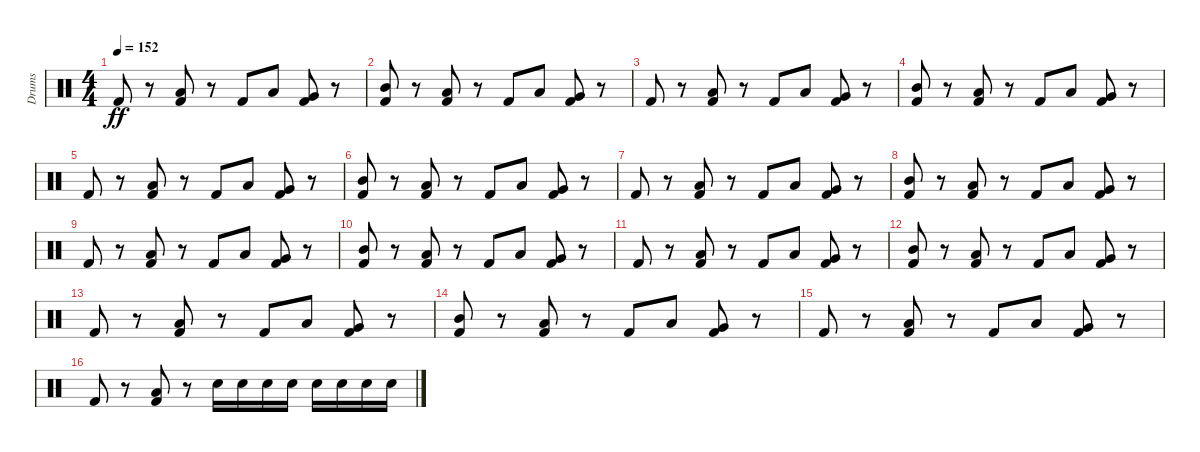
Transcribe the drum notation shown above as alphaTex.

\track ("Drums" "Drums") {instrument percussion}
\staff {score}
\articulation defaults
\ts (4 4)
\tempo 152
\clef neutral
\ks c "Kick (hit) 2".8{dy ff}
r.8 ("Kick (hit) 2" "Low Tom (hit)").8 r.8 "Kick (hit) 2".8 "Low Tom (hit)".8 ("Kick (hit) 2" "Very Low Tom (hit)").8 r.8 |
("Mid Tom (hit)" "Kick (hit) 2").8 r.8 ("Kick (hit) 2" "Low Tom (hit)").8 r.8 "Kick (hit) 2".8 "Low Tom (hit)".8 ("Kick (hit) 2" "Very Low Tom (hit)").8 r.8 |
"Kick (hit) 2".8 r.8 ("Low Tom (hit)" "Kick (hit) 2").8 r.8 "Kick (hit) 2".8 "Low Tom (hit)".8 ("Very Low Tom (hit)" "Kick (hit) 2").8 r.8 |
("Mid Tom (hit)" "Kick (hit) 2").8 r.8 ("Low Tom (hit)" "Kick (hit) 2").8 r.8 "Kick (hit) 2".8 "Low Tom (hit)".8 ("Very Low Tom (hit)" "Kick (hit) 2").8 r.8 |
"Kick (hit) 2".8 r.8 ("Low Tom (hit)" "Kick (hit) 2").8 r.8 "Kick (hit) 2".8 "Low Tom (hit)".8 ("Very Low Tom (hit)" "Kick (hit) 2").8 r.8 |
("Kick (hit) 2" "Mid Tom (hit)").8 r.8 ("Low Tom (hit)" "Kick (hit) 2").8 r.8 "Kick (hit) 2".8 "Low Tom (hit)".8 ("Very Low Tom (hit)" "Kick (hit) 2").8 r.8 |
"Kick (hit) 2".8 r.8 ("Kick (hit) 2" "Low Tom (hit)").8 r.8 "Kick (hit) 2".8 "Low Tom (hit)".8 ("Kick (hit) 2" "Very Low Tom (hit)").8 r.8 |
("Kick (hit) 2" "Mid Tom (hit)").8 r.8 ("Kick (hit) 2" "Low Tom (hit)").8 r.8 "Kick (hit) 2".8 "Low Tom (hit)".8 ("Kick (hit) 2" "Very Low Tom (hit)").8 r.8 |
"Kick (hit) 2".8 r.8 ("Kick (hit) 2" "Low Tom (hit)").8 r.8 "Kick (hit) 2".8 "Low Tom (hit)".8 ("Kick (hit) 2" "Very Low Tom (hit)").8 r.8 |
("Mid Tom (hit)" "Kick (hit) 2").8 r.8 ("Kick (hit) 2" "Low Tom (hit)").8 r.8 "Kick (hit) 2".8 "Low Tom (hit)".8 ("Kick (hit) 2" "Very Low Tom (hit)").8 r.8 |
"Kick (hit) 2".8 r.8 ("Low Tom (hit)" "Kick (hit) 2").8 r.8 "Kick (hit) 2".8 "Low Tom (hit)".8 ("Very Low Tom (hit)" "Kick (hit) 2").8 r.8 |
("Mid Tom (hit)" "Kick (hit) 2").8 r.8 ("Low Tom (hit)" "Kick (hit) 2").8 r.8 "Kick (hit) 2".8 "Low Tom (hit)".8 ("Very Low Tom (hit)" "Kick (hit) 2").8 r.8 |
"Kick (hit) 2".8 r.8 ("Low Tom (hit)" "Kick (hit) 2").8 r.8 "Kick (hit) 2".8 "Low Tom (hit)".8 ("Very Low Tom (hit)" "Kick (hit) 2").8 r.8 |
("Kick (hit) 2" "Mid Tom (hit)").8 r.8 ("Low Tom (hit)" "Kick (hit) 2").8 r.8 "Kick (hit) 2".8 "Low Tom (hit)".8 ("Very Low Tom (hit)" "Kick (hit) 2").8 r.8 |
"Kick (hit) 2".8 r.8 ("Kick (hit) 2" "Low Tom (hit)").8 r.8 "Kick (hit) 2".8 "Low Tom (hit)".8 ("Kick (hit) 2" "Very Low Tom (hit)").8 r.8 |
"Kick (hit) 2".8 r.8 ("Low Tom (hit)" "Kick (hit) 2").8 r.8 "Snare (hit) 2".16 "Snare (hit) 2".16 "Snare (hit) 2".16 "Snare (hit) 2".16 "Snare (hit) 2".16 "Snare (hit) 2".16 "Snare (hit) 2".16 "Snare (hit) 2".16
